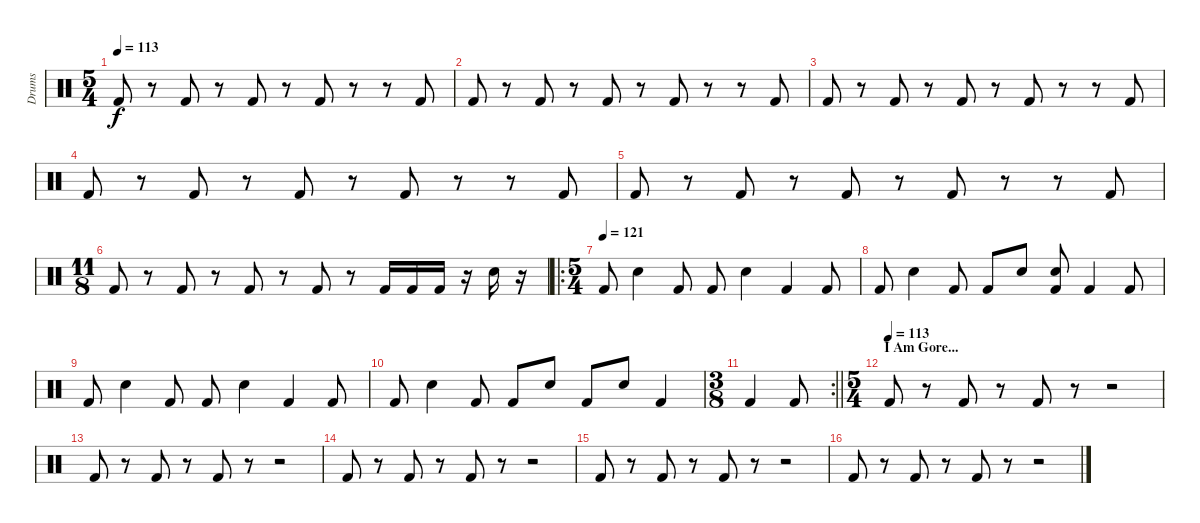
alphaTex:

\track ("Drums" "Drums") {instrument percussion}
\staff {score}
\articulation defaults
\ts (5 4)
\tempo 113
\clef neutral
\ks c "Kick (hit) 2".8{dy f}
r.8 "Kick (hit) 2".8 r.8 "Kick (hit) 2".8 r.8 "Kick (hit) 2".8 r.8 r.8 "Kick (hit) 2".8 |
"Kick (hit) 2".8 r.8 "Kick (hit) 2".8 r.8 "Kick (hit) 2".8 r.8 "Kick (hit) 2".8 r.8 r.8 "Kick (hit) 2".8 |
"Kick (hit) 2".8 r.8 "Kick (hit) 2".8 r.8 "Kick (hit) 2".8 r.8 "Kick (hit) 2".8 r.8 r.8 "Kick (hit) 2".8 |
"Kick (hit) 2".8 r.8 "Kick (hit) 2".8 r.8 "Kick (hit) 2".8 r.8 "Kick (hit) 2".8 r.8 r.8 "Kick (hit) 2".8 |
"Kick (hit) 2".8 r.8 "Kick (hit) 2".8 r.8 "Kick (hit) 2".8 r.8 "Kick (hit) 2".8 r.8 r.8 "Kick (hit) 2".8 |
\ts (11 8)
"Kick (hit) 2".8 r.8 "Kick (hit) 2".8 r.8 "Kick (hit) 2".8 r.8 "Kick (hit) 2".8 r.8 "Kick (hit) 2".16 "Kick (hit) 2".16 "Kick (hit) 2".16 r.16 "Electric Snare (hit)".16 r.16 |
\ro
\ts (5 4)
\tempo (121)
"Kick (hit) 2".8 "Electric Snare (hit)".4 "Kick (hit) 2".8 "Kick (hit) 2".8 "Electric Snare (hit)".4 "Kick (hit) 2".4 "Kick (hit) 2".8 |
"Kick (hit) 2".8 "Electric Snare (hit)".4 "Kick (hit) 2".8 "Kick (hit) 2".8 "Electric Snare (hit)".8 ("Electric Snare (hit)" "Kick (hit) 2").8 "Kick (hit) 2".4 "Kick (hit) 2".8 |
"Kick (hit) 2".8 "Electric Snare (hit)".4 "Kick (hit) 2".8 "Kick (hit) 2".8 "Electric Snare (hit)".4 "Kick (hit) 2".4 "Kick (hit) 2".8 |
"Kick (hit) 2".8 "Electric Snare (hit)".4 "Kick (hit) 2".8 "Kick (hit) 2".8 "Electric Snare (hit)".8 "Kick (hit) 2".8 "Electric Snare (hit)".8 "Kick (hit) 2".4 |
\rc 2
\ts (3 8)
\barLineRight lightlight "Kick (hit) 2".4 "Kick (hit) 2".8
|
\ts (5 4)
\section ("" "I Am Gore...")
\tempo (113)
"Kick (hit) 2".8 r.8 "Kick (hit) 2".8 r.8 "Kick (hit) 2".8 r.8 r.2 |
"Kick (hit) 2".8 r.8 "Kick (hit) 2".8 r.8 "Kick (hit) 2".8 r.8 r.2 |
"Kick (hit) 2".8 r.8 "Kick (hit) 2".8 r.8 "Kick (hit) 2".8 r.8 r.2 |
"Kick (hit) 2".8 r.8 "Kick (hit) 2".8 r.8 "Kick (hit) 2".8 r.8 r.2 |
"Kick (hit) 2".8 r.8 "Kick (hit) 2".8 r.8 "Kick (hit) 2".8 r.8 r.2
